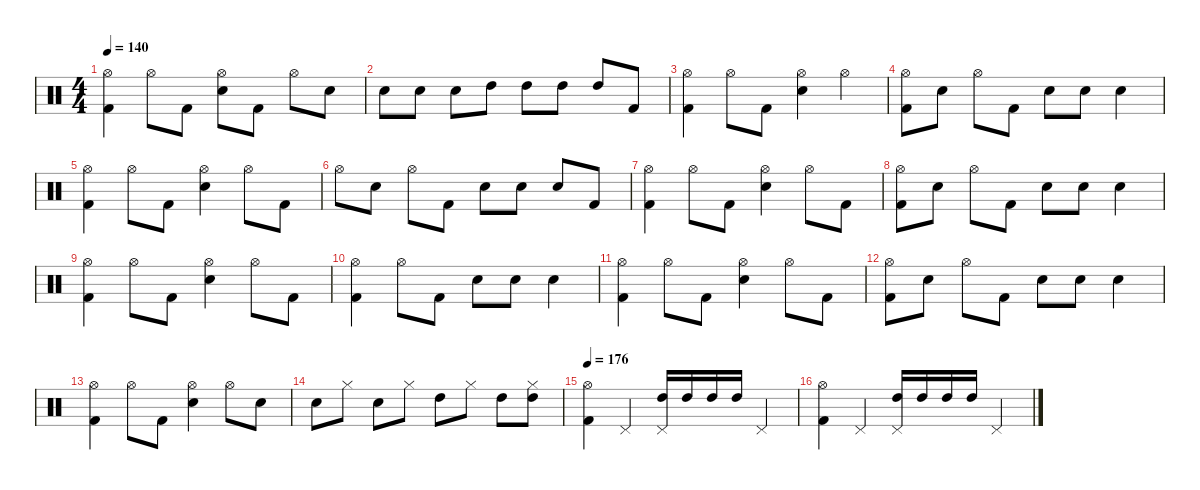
\defaultSystemsLayout 4
\hideDynamics
\bracketExtendMode nobrackets
\singleTrackTrackNamePolicy hidden
\multiTrackTrackNamePolicy hidden
\firstSystemTrackNameMode fullname
\firstSystemTrackNameOrientation horizontal
\otherSystemsTrackNameOrientation horizontal
\track ("Bill Ward" "drm.") {instrument percussion}
\staff {score}
\articulation defaults
\ts (4 4)
\tempo 140
\clef neutral
\ks c
("Hi-Hat (open)" "Kick (hit) 2").4{dy f beam Down} "Hi-Hat (open)".8{beam Down} "Kick (hit) 2".8{beam Down} ("Hi-Hat (open)" "Snare (hit) 2").8{beam Down} "Kick (hit) 2".8{beam Down} "Hi-Hat (open)".8{beam Down} "Snare (hit) 2".8{beam Down} |
"Snare (hit) 2".8{beam Down} "Snare (hit) 2".8{beam Down} "Snare (hit) 2".8{beam Down} "High Tom (hit)".8{beam Down} "High Tom (hit)".8{beam Down} "High Tom (hit)".8{beam Down} "High Tom (hit)".8{beam Up} "Kick (hit) 2".8{beam Up} |
("Hi-Hat (open)" "Kick (hit) 2").4{beam Down} "Hi-Hat (open)".8{beam Down} "Kick (hit) 2".8{beam Down} ("Hi-Hat (open)" "Snare (hit) 2").4{beam Down} "Hi-Hat (open)".4{beam Down} |
("Hi-Hat (open)" "Kick (hit) 2").8{beam Down} "Snare (hit) 2".8{beam Down} "Hi-Hat (open)".8{beam Down} "Kick (hit) 2".8{beam Down} "Snare (hit) 2".8{beam Down} "Snare (hit) 2".8{beam Down} "Snare (hit) 2".4{beam Down} |
("Hi-Hat (open)" "Kick (hit) 2").4{beam Down} "Hi-Hat (open)".8{beam Down} "Kick (hit) 2".8{beam Down} ("Hi-Hat (open)" "Snare (hit) 2").4{beam Down} "Hi-Hat (open)".8{beam Down} "Kick (hit) 2".8{beam Down} |
"Hi-Hat (open)".8{beam Down} "Snare (hit) 2".8{beam Down} "Hi-Hat (open)".8{beam Down} "Kick (hit) 2".8{beam Down} "Snare (hit) 2".8{beam Down} "Snare (hit) 2".8{beam Down} "Snare (hit) 2".8{beam Up} "Kick (hit) 2".8{beam Up} |
("Hi-Hat (open)" "Kick (hit) 2").4{beam Down} "Hi-Hat (open)".8{beam Down} "Kick (hit) 2".8{beam Down} ("Hi-Hat (open)" "Snare (hit) 2").4{beam Down} "Hi-Hat (open)".8{beam Down} "Kick (hit) 2".8{beam Down} |
("Hi-Hat (open)" "Kick (hit) 2").8{beam Down} "Snare (hit) 2".8{beam Down} "Hi-Hat (open)".8{beam Down} "Kick (hit) 2".8{beam Down} "Snare (hit) 2".8{beam Down} "Snare (hit) 2".8{beam Down} "Snare (hit) 2".4{beam Down} |
("Hi-Hat (open)" "Kick (hit) 2").4{beam Down} "Hi-Hat (open)".8{beam Down} "Kick (hit) 2".8{beam Down} ("Hi-Hat (open)" "Snare (hit) 2").4{beam Down} "Hi-Hat (open)".8{beam Down} "Kick (hit) 2".8{beam Down} |
("Hi-Hat (open)" "Kick (hit) 2").4{beam Down} "Hi-Hat (open)".8{beam Down} "Kick (hit) 2".8{beam Down} "Snare (hit) 2".8{beam Down} "Snare (hit) 2".8{beam Down} "Snare (hit) 2".4{beam Down} |
("Hi-Hat (open)" "Kick (hit) 2").4{beam Down} "Hi-Hat (open)".8{beam Down} "Kick (hit) 2".8{beam Down} ("Hi-Hat (open)" "Snare (hit) 2").4{beam Down} "Hi-Hat (open)".8{beam Down} "Kick (hit) 2".8{beam Down} |
("Hi-Hat (open)" "Kick (hit) 2").8{beam Down} "Snare (hit) 2".8{beam Down} "Hi-Hat (open)".8{beam Down} "Kick (hit) 2".8{beam Down} "Snare (hit) 2".8{beam Down} "Snare (hit) 2".8{beam Down} "Snare (hit) 2".4{beam Down} |
("Hi-Hat (open)" "Kick (hit) 2").4{beam Down} "Hi-Hat (open)".8{beam Down} "Kick (hit) 2".8{beam Down} ("Hi-Hat (open)" "Snare (hit) 2").4{beam Down} "Hi-Hat (open)".8{beam Down} "Snare (hit) 2".8{beam Down} |
"Snare (hit) 2".8{beam Down} "Hi-Hat (closed)".8{beam Down} "Snare (hit) 2".8{beam Down} "Hi-Hat (closed)".8{beam Down} "High Tom (hit)".8{beam Down} "Hi-Hat (closed)".8{beam Down} "High Tom (hit)".8{beam Down} ("Hi-Hat (closed)" "High Tom (hit)").8{beam Down} |
\tempo 176
("Hi-Hat (open)" "Kick (hit) 2").4{beam Down} "Pedal Hi-Hat (hit)".4{beam Up} ("Pedal Hi-Hat (hit)" "High Tom (hit)").16{beam Up} "High Tom (hit)".16{beam Up} "High Tom (hit)".16{beam Up} "High Tom (hit)".16{beam Up} "Pedal Hi-Hat (hit)".4{beam Up} |
("Hi-Hat (open)" "Kick (hit) 2").4{beam Down} "Pedal Hi-Hat (hit)".4{beam Up} ("Pedal Hi-Hat (hit)" "High Tom (hit)").16{beam Up} "High Tom (hit)".16{beam Up} "High Tom (hit)".16{beam Up} "High Tom (hit)".16{beam Up} "Pedal Hi-Hat (hit)".4{beam Up}
